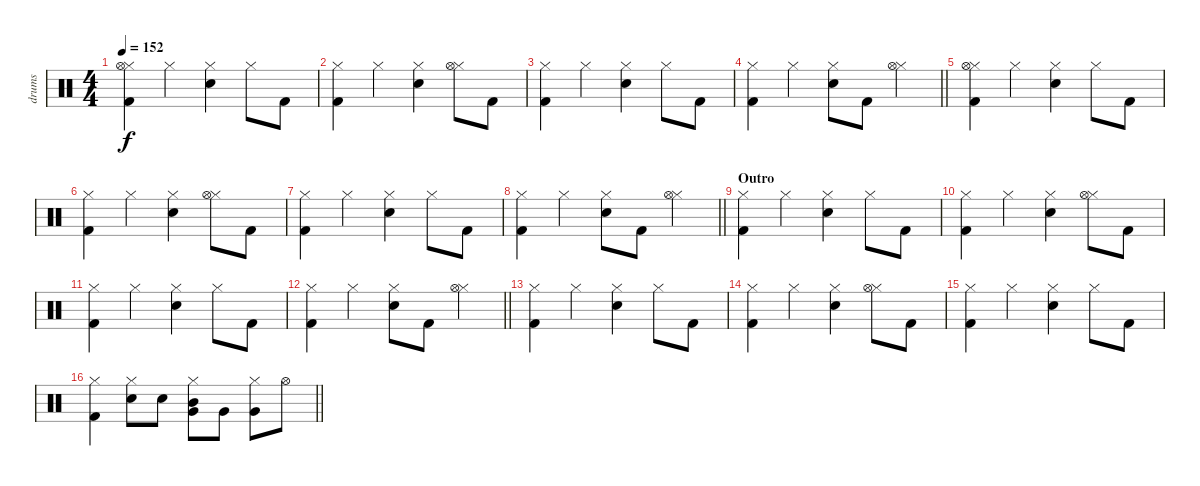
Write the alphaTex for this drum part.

\track ("drums" "drums") {instrument percussion}
\staff {score}
\articulation defaults
\ts (4 4)
\tempo 152
\clef neutral
\ks c
("Hi-Hat (closed)" "Hi-Hat (open)" "Kick (hit) 2").4{dy f} "Hi-Hat (closed)".4 ("Hi-Hat (closed)" "Electric Snare (hit)").4 "Hi-Hat (closed)".8 "Kick (hit) 2".8 |
("Hi-Hat (closed)" "Kick (hit) 2").4 "Hi-Hat (closed)".4 ("Hi-Hat (closed)" "Electric Snare (hit)").4 ("Hi-Hat (closed)" "Hi-Hat (open)").8 "Kick (hit) 2".8 |
("Hi-Hat (closed)" "Kick (hit) 2").4 "Hi-Hat (closed)".4 ("Hi-Hat (closed)" "Electric Snare (hit)").4 "Hi-Hat (closed)".8 "Kick (hit) 2".8 |
\barLineRight lightlight
("Hi-Hat (closed)" "Kick (hit) 2").4 "Hi-Hat (closed)".4 ("Hi-Hat (closed)" "Electric Snare (hit)").8 "Kick (hit) 2".8 ("Hi-Hat (closed)" "Hi-Hat (open)").4 |
("Hi-Hat (closed)" "Hi-Hat (open)" "Kick (hit) 2").4 "Hi-Hat (closed)".4 ("Hi-Hat (closed)" "Electric Snare (hit)").4 "Hi-Hat (closed)".8 "Kick (hit) 2".8 |
("Hi-Hat (closed)" "Kick (hit) 2").4 "Hi-Hat (closed)".4 ("Hi-Hat (closed)" "Electric Snare (hit)").4 ("Hi-Hat (closed)" "Hi-Hat (open)").8 "Kick (hit) 2".8 |
("Hi-Hat (closed)" "Kick (hit) 2").4 "Hi-Hat (closed)".4 ("Hi-Hat (closed)" "Electric Snare (hit)").4 "Hi-Hat (closed)".8 "Kick (hit) 2".8 |
\barLineRight lightlight
("Hi-Hat (closed)" "Kick (hit) 2").4 "Hi-Hat (closed)".4 ("Hi-Hat (closed)" "Electric Snare (hit)").8 "Kick (hit) 2".8 ("Hi-Hat (closed)" "Hi-Hat (open)").4 |
\section ("" "Outro")
("Hi-Hat (closed)" "Kick (hit) 2").4 "Hi-Hat (closed)".4 ("Hi-Hat (closed)" "Electric Snare (hit)").4 "Hi-Hat (closed)".8 "Kick (hit) 2".8 |
("Hi-Hat (closed)" "Kick (hit) 2").4 "Hi-Hat (closed)".4 ("Hi-Hat (closed)" "Electric Snare (hit)").4 ("Hi-Hat (closed)" "Hi-Hat (open)").8 "Kick (hit) 2".8 |
("Hi-Hat (closed)" "Kick (hit) 2").4 "Hi-Hat (closed)".4 ("Hi-Hat (closed)" "Electric Snare (hit)").4 "Hi-Hat (closed)".8 "Kick (hit) 2".8 |
\barLineRight lightlight
("Hi-Hat (closed)" "Kick (hit) 2").4 "Hi-Hat (closed)".4 ("Hi-Hat (closed)" "Electric Snare (hit)").8 "Kick (hit) 2".8 ("Hi-Hat (closed)" "Hi-Hat (open)").4 |
("Hi-Hat (closed)" "Kick (hit) 2").4 "Hi-Hat (closed)".4 ("Hi-Hat (closed)" "Electric Snare (hit)").4 "Hi-Hat (closed)".8 "Kick (hit) 2".8 |
("Hi-Hat (closed)" "Kick (hit) 2").4 "Hi-Hat (closed)".4 ("Hi-Hat (closed)" "Electric Snare (hit)").4 ("Hi-Hat (closed)" "Hi-Hat (open)").8 "Kick (hit) 2".8 |
("Hi-Hat (closed)" "Kick (hit) 2").4 "Hi-Hat (closed)".4 ("Hi-Hat (closed)" "Electric Snare (hit)").4 "Hi-Hat (closed)".8 "Kick (hit) 2".8 |
\barLineRight lightlight
("Hi-Hat (closed)" "Kick (hit) 2").4 ("Hi-Hat (closed)" "Electric Snare (hit)").8 "Electric Snare (hit)".8 ("Hi-Hat (closed)" "Very Low Tom (hit)" "Mid Tom (hit)").8 "Very Low Tom (hit)".8 ("Hi-Hat (closed)" "Very Low Tom (hit)").8 "Hi-Hat (open)".8
